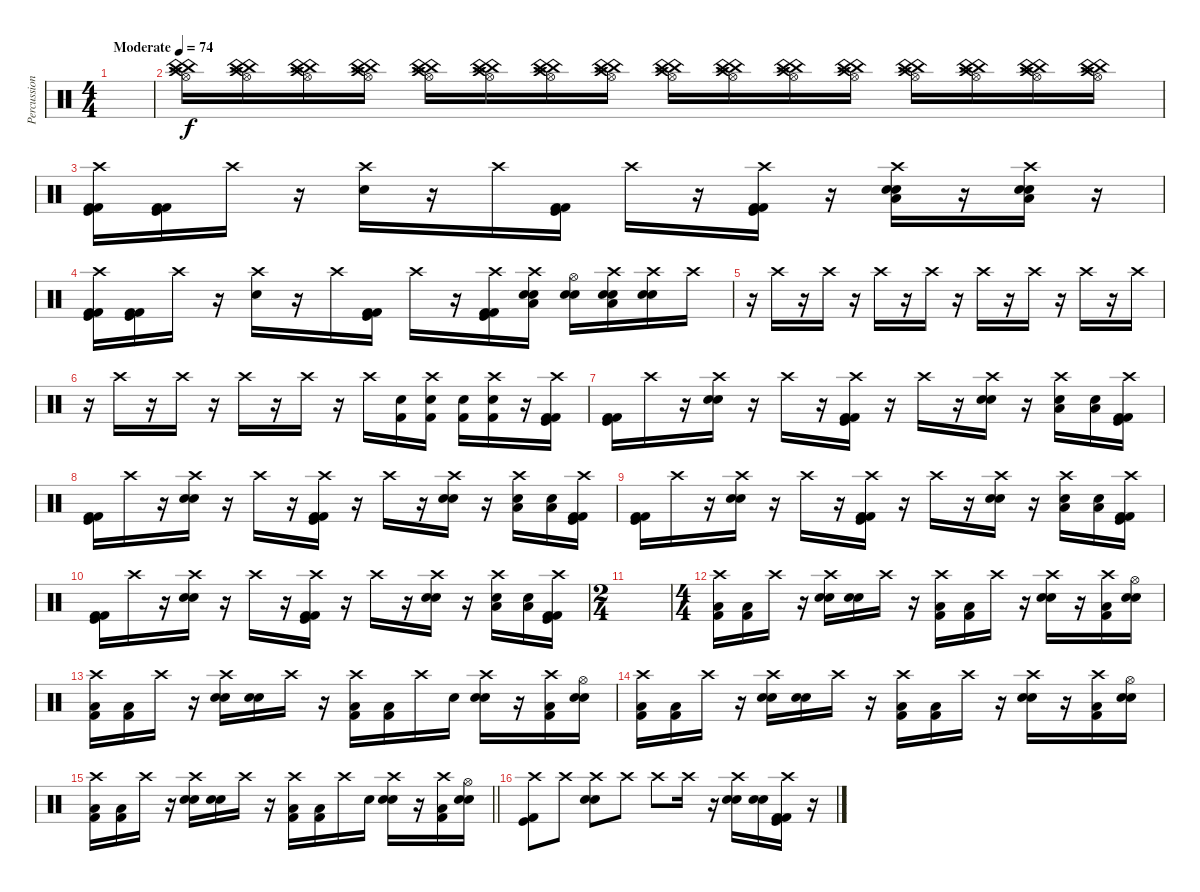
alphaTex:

\track ("Percussions" "Percussion") {instrument percussion}
\staff {score}
\articulation defaults
\ts (4 4)
\tempo (74 "Moderate")
\clef neutral
\ks c
|
("Crash high (hit)" "Hi-Hat (open)" "China (hit)" "China (hit)").16{volume 16} ("Crash high (hit)" "Hi-Hat (open)" "China (hit)" "China (hit)").16 ("Crash high (hit)" "Hi-Hat (open)" "China (hit)" "China (hit)").16 ("Crash high (hit)" "Hi-Hat (open)" "China (hit)" "China (hit)").16 ("Crash high (hit)" "Hi-Hat (open)" "China (hit)" "China (hit)").16 ("Crash high (hit)" "Hi-Hat (open)" "China (hit)" "China (hit)").16 ("Crash high (hit)" "Hi-Hat (open)" "China (hit)" "China (hit)").16 ("Crash high (hit)" "Hi-Hat (open)" "China (hit)" "China (hit)").16 ("Crash high (hit)" "Hi-Hat (open)" "China (hit)" "China (hit)").16 ("Crash high (hit)" "Hi-Hat (open)" "China (hit)" "China (hit)").16 ("Crash high (hit)" "Hi-Hat (open)" "China (hit)" "China (hit)").16 ("Crash high (hit)" "Hi-Hat (open)" "China (hit)" "China (hit)").16 ("Crash high (hit)" "Hi-Hat (open)" "China (hit)" "China (hit)").16 ("Crash high (hit)" "Hi-Hat (open)" "China (hit)" "China (hit)").16 ("Crash high (hit)" "Hi-Hat (open)" "China (hit)" "China (hit)").16 ("Crash high (hit)" "Hi-Hat (open)" "China (hit)" "China (hit)").16 |
("Crash high (hit)" "Kick (hit)" "Kick (hit) 2" "Kick (hit) 2").16 ("Kick (hit)" "Kick (hit) 2" "Kick (hit) 2").16 "Crash high (hit)".16 r.16 ("Crash high (hit)" "Electric Snare (hit)").16 r.16 "Crash high (hit)".16 ("Kick (hit)" "Kick (hit) 2" "Kick (hit) 2").16 "Crash high (hit)".16 r.16 ("Crash high (hit)" "Kick (hit)" "Kick (hit) 2" "Kick (hit) 2").16 r.16 ("Crash high (hit)" "Electric Snare (hit)" "Snare (hit) 2" "Low Tom (hit)").16 r.16 ("Crash high (hit)" "Electric Snare (hit)" "Snare (hit) 2" "Low Tom (hit)").16 r.16 |
("Crash high (hit)" "Kick (hit)" "Kick (hit) 2" "Kick (hit) 2").16 ("Kick (hit)" "Kick (hit) 2" "Kick (hit) 2").16 "Crash high (hit)".16 r.16 ("Crash high (hit)" "Electric Snare (hit)").16 r.16 "Crash high (hit)".16 ("Kick (hit)" "Kick (hit) 2" "Kick (hit) 2").16 "Crash high (hit)".16 r.16 ("Crash high (hit)" "Kick (hit)" "Kick (hit) 2" "Kick (hit) 2").16 ("Crash high (hit)" "Electric Snare (hit)" "Snare (hit) 2" "Low Tom (hit)").16 ("Hi-Hat (open)" "Electric Snare (hit)" "Snare (hit) 2").16 ("Crash high (hit)" "Electric Snare (hit)" "Snare (hit) 2" "Low Tom (hit)").16 ("Crash high (hit)" "Electric Snare (hit)" "Snare (hit) 2").16 "Crash high (hit)".16 |
r.16 "Crash high (hit)".16 r.16 "Crash high (hit)".16 r.16 "Crash high (hit)".16 r.16 "Crash high (hit)".16 r.16 "Crash high (hit)".16 r.16 "Crash high (hit)".16 r.16 "Crash high (hit)".16 r.16 "Crash high (hit)".16 |
r.16 "Crash high (hit)".16 r.16 "Crash high (hit)".16 r.16 "Crash high (hit)".16 r.16 "Crash high (hit)".16 r.16 "Crash high (hit)".16 ("Electric Snare (hit)" "Kick (hit) 2").16 ("Crash high (hit)" "Electric Snare (hit)" "Kick (hit) 2").16 ("Electric Snare (hit)" "Kick (hit) 2").16 ("Crash high (hit)" "Electric Snare (hit)" "Kick (hit) 2").16 r.16 ("Crash high (hit)" "Kick (hit)" "Kick (hit) 2" "Kick (hit) 2").16 |
("Kick (hit)" "Kick (hit) 2" "Kick (hit) 2").16 "Crash high (hit)".16 r.16 ("Crash high (hit)" "Snare (hit) 2" "Electric Snare (hit)").16 r.16 "Crash high (hit)".16 r.16 ("Crash high (hit)" "Kick (hit) 2" "Kick (hit)" "Kick (hit) 2").16 r.16 "Crash high (hit)".16 r.16 ("Crash high (hit)" "Snare (hit) 2" "Electric Snare (hit)").16 r.16 ("Crash high (hit)" "Electric Snare (hit)" "Low Tom (hit)").16 ("Electric Snare (hit)" "Low Tom (hit)").16 ("Crash high (hit)" "Kick (hit)" "Kick (hit) 2" "Kick (hit) 2").16 |
("Kick (hit)" "Kick (hit) 2" "Kick (hit) 2").16 "Crash high (hit)".16 r.16 ("Crash high (hit)" "Snare (hit) 2" "Electric Snare (hit)").16 r.16 "Crash high (hit)".16 r.16 ("Crash high (hit)" "Kick (hit) 2" "Kick (hit)" "Kick (hit) 2").16 r.16 "Crash high (hit)".16 r.16 ("Crash high (hit)" "Snare (hit) 2" "Electric Snare (hit)").16 r.16 ("Crash high (hit)" "Electric Snare (hit)" "Low Tom (hit)").16 ("Electric Snare (hit)" "Low Tom (hit)").16 ("Crash high (hit)" "Kick (hit)" "Kick (hit) 2" "Kick (hit) 2").16 |
("Kick (hit)" "Kick (hit) 2" "Kick (hit) 2").16 "Crash high (hit)".16 r.16 ("Crash high (hit)" "Snare (hit) 2" "Electric Snare (hit)").16 r.16 "Crash high (hit)".16 r.16 ("Crash high (hit)" "Kick (hit) 2" "Kick (hit)" "Kick (hit) 2").16 r.16 "Crash high (hit)".16 r.16 ("Crash high (hit)" "Snare (hit) 2" "Electric Snare (hit)").16 r.16 ("Crash high (hit)" "Electric Snare (hit)" "Low Tom (hit)").16 ("Electric Snare (hit)" "Low Tom (hit)").16 ("Crash high (hit)" "Kick (hit)" "Kick (hit) 2" "Kick (hit) 2").16 |
("Kick (hit)" "Kick (hit) 2" "Kick (hit) 2").16 "Crash high (hit)".16 r.16 ("Crash high (hit)" "Snare (hit) 2" "Electric Snare (hit)").16 r.16 "Crash high (hit)".16 r.16 ("Crash high (hit)" "Kick (hit) 2" "Kick (hit)" "Kick (hit) 2").16 r.16 "Crash high (hit)".16 r.16 ("Crash high (hit)" "Snare (hit) 2" "Electric Snare (hit)").16 r.16 ("Crash high (hit)" "Electric Snare (hit)" "Low Tom (hit)").16 ("Electric Snare (hit)" "Low Tom (hit)").16 ("Crash high (hit)" "Kick (hit)" "Kick (hit) 2" "Kick (hit) 2").16 |
\ts (2 4)
|
\ts (4 4)
("Crash high (hit)" "Low Tom (hit)" "Kick (hit) 2").16 ("Low Tom (hit)" "Kick (hit) 2").16 "Crash high (hit)".16 r.16 ("Crash high (hit)" "Snare (hit) 2" "Electric Snare (hit)").16 ("Snare (hit) 2" "Electric Snare (hit)").16 "Crash high (hit)".16 r.16 ("Crash high (hit)" "Low Tom (hit)" "Kick (hit) 2").16 ("Low Tom (hit)" "Kick (hit) 2").16 "Crash high (hit)".16 r.16 ("Crash high (hit)" "Snare (hit) 2" "Electric Snare (hit)").16 r.16 ("Crash high (hit)" "Low Tom (hit)" "Kick (hit) 2").16 ("Hi-Hat (open)" "Electric Snare (hit)" "Snare (hit) 2").16 |
("Crash high (hit)" "Low Tom (hit)" "Kick (hit) 2").16 ("Low Tom (hit)" "Kick (hit) 2").16 "Crash high (hit)".16 r.16 ("Crash high (hit)" "Snare (hit) 2" "Electric Snare (hit)").16 ("Snare (hit) 2" "Electric Snare (hit)").16 "Crash high (hit)".16 r.16 ("Crash high (hit)" "Low Tom (hit)" "Kick (hit) 2").16 ("Low Tom (hit)" "Kick (hit) 2").16 "Crash high (hit)".16 "Electric Snare (hit)".16 ("Crash high (hit)" "Snare (hit) 2" "Electric Snare (hit)").16 r.16 ("Crash high (hit)" "Low Tom (hit)" "Kick (hit) 2").16 ("Hi-Hat (open)" "Electric Snare (hit)" "Snare (hit) 2").16 |
("Crash high (hit)" "Low Tom (hit)" "Kick (hit) 2").16 ("Low Tom (hit)" "Kick (hit) 2").16 "Crash high (hit)".16 r.16 ("Crash high (hit)" "Snare (hit) 2" "Electric Snare (hit)").16 ("Snare (hit) 2" "Electric Snare (hit)").16 "Crash high (hit)".16 r.16 ("Crash high (hit)" "Low Tom (hit)" "Kick (hit) 2").16 ("Low Tom (hit)" "Kick (hit) 2").16 "Crash high (hit)".16 r.16 ("Crash high (hit)" "Snare (hit) 2" "Electric Snare (hit)").16 r.16 ("Crash high (hit)" "Low Tom (hit)" "Kick (hit) 2").16 ("Hi-Hat (open)" "Electric Snare (hit)" "Snare (hit) 2").16 |
\barLineRight lightlight
("Crash high (hit)" "Low Tom (hit)" "Kick (hit) 2").16 ("Low Tom (hit)" "Kick (hit) 2").16 "Crash high (hit)".16 r.16 ("Crash high (hit)" "Snare (hit) 2" "Electric Snare (hit)").16 ("Snare (hit) 2" "Electric Snare (hit)").16 "Crash high (hit)".16 r.16 ("Crash high (hit)" "Low Tom (hit)" "Kick (hit) 2").16 ("Low Tom (hit)" "Kick (hit) 2").16 "Crash high (hit)".16 "Electric Snare (hit)".16 ("Crash high (hit)" "Snare (hit) 2" "Electric Snare (hit)").16 r.16 ("Crash high (hit)" "Low Tom (hit)" "Kick (hit) 2").16 ("Hi-Hat (open)" "Electric Snare (hit)" "Snare (hit) 2").16 |
\section ("" "")
("Crash high (hit)" "Kick (hit)" "Kick (hit) 2").8 "Crash high (hit)".8 ("Crash high (hit)" "Snare (hit) 2" "Electric Snare (hit)").8 "Crash high (hit)".8 "Crash high (hit)".8 "Crash high (hit)".16 r.16 ("Crash high (hit)" "Electric Snare (hit)" "Snare (hit) 2").16 ("Electric Snare (hit)" "Snare (hit) 2").16 ("Crash high (hit)" "Kick (hit)" "Kick (hit) 2" "Kick (hit) 2").16 r.16
